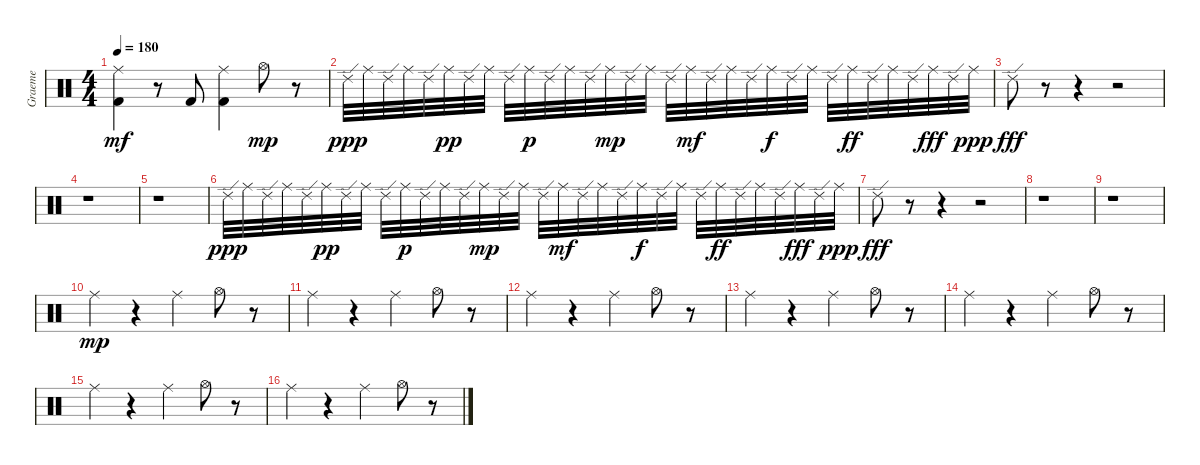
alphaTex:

\track ("Graeme" "Graeme") {instrument percussion}
\staff {score}
\articulation defaults
\ts (4 4)
\tempo 180
\clef neutral
\ks c
("Ride (middle)" "Kick (hit) 2").4{dy mf} r.8 "Kick (hit) 2".8 ("Ride (middle)" "Kick (hit) 2").4 "Hi-Hat (open)".8{dy mp} r.8 |
"Ride (edge) 2".32{dy ppp} "Ride (middle)".32 "Ride (edge) 2".32 "Ride (middle)".32 "Ride (edge) 2".32 "Ride (middle)".32{dy pp} "Ride (edge) 2".32 "Ride (middle)".32 "Ride (edge) 2".32 "Ride (middle)".32{dy p} "Ride (edge) 2".32 "Ride (middle)".32 "Ride (edge) 2".32 "Ride (middle)".32{dy mp} "Ride (edge) 2".32 "Ride (middle)".32 "Ride (edge) 2".32 "Ride (middle)".32{dy mf} "Ride (edge) 2".32 "Ride (middle)".32 "Ride (edge) 2".32 "Ride (middle)".32{dy f} "Ride (edge) 2".32 "Ride (middle)".32 "Ride (edge) 2".32 "Ride (middle)".32{dy ff} "Ride (edge) 2".32 "Ride (middle)".32 "Ride (edge) 2".32 "Ride (middle)".32{dy fff} "Ride (edge) 2".32 "Ride (middle)".32{dy ppp} |
"Ride (edge) 2".8{dy fff} r.8 r.4 r.2 |
r.1 |
r.1 |
"Ride (edge) 2".32{dy ppp} "Ride (middle)".32 "Ride (edge) 2".32 "Ride (middle)".32 "Ride (edge) 2".32 "Ride (middle)".32{dy pp} "Ride (edge) 2".32 "Ride (middle)".32 "Ride (edge) 2".32 "Ride (middle)".32{dy p} "Ride (edge) 2".32 "Ride (middle)".32 "Ride (edge) 2".32 "Ride (middle)".32{dy mp} "Ride (edge) 2".32 "Ride (middle)".32 "Ride (edge) 2".32 "Ride (middle)".32{dy mf} "Ride (edge) 2".32 "Ride (middle)".32 "Ride (edge) 2".32 "Ride (middle)".32{dy f} "Ride (edge) 2".32 "Ride (middle)".32 "Ride (edge) 2".32 "Ride (middle)".32{dy ff} "Ride (edge) 2".32 "Ride (middle)".32 "Ride (edge) 2".32 "Ride (middle)".32{dy fff} "Ride (edge) 2".32 "Ride (middle)".32{dy ppp} |
"Ride (edge) 2".8{dy fff} r.8 r.4 r.2 |
r.1 |
r.1 |
"Ride (middle)".4{dy mp} r.4 "Ride (middle)".4 "Hi-Hat (open)".8 r.8 |
"Ride (middle)".4 r.4 "Ride (middle)".4 "Hi-Hat (open)".8 r.8 |
"Ride (middle)".4 r.4 "Ride (middle)".4 "Hi-Hat (open)".8 r.8 |
"Ride (middle)".4 r.4 "Ride (middle)".4 "Hi-Hat (open)".8 r.8 |
"Ride (middle)".4 r.4 "Ride (middle)".4 "Hi-Hat (open)".8 r.8 |
"Ride (middle)".4 r.4 "Ride (middle)".4 "Hi-Hat (open)".8 r.8 |
"Ride (middle)".4 r.4 "Ride (middle)".4 "Hi-Hat (open)".8 r.8
